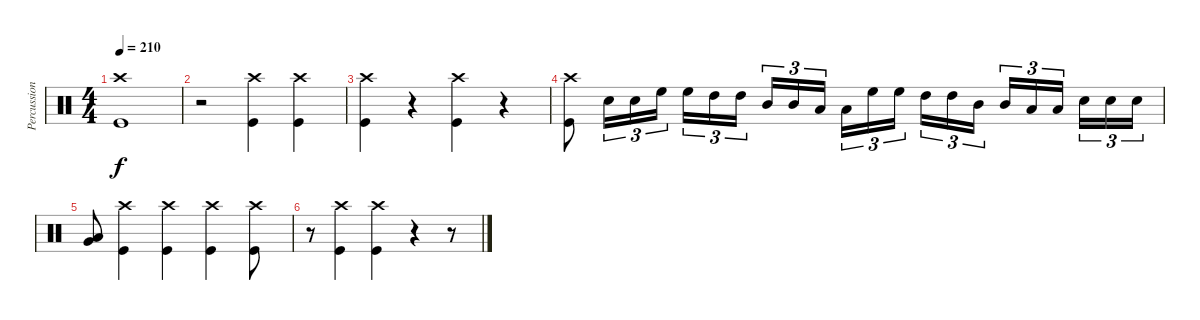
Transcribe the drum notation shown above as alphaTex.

\track ("Percussion" "Percussion") {instrument percussion}
\staff {score}
\articulation defaults
\ts (4 4)
\tempo 210
\clef neutral
\ks c
("Crash high (hit)" "Kick (hit)").1{dy f} |
r.2 ("Crash high (hit)" "Kick (hit)").4 ("Crash high (hit)" "Kick (hit)").4 |
("Crash high (hit)" "Kick (hit)").4 r.4 ("Crash high (hit)" "Kick (hit)").4 r.4 |
("Crash high (hit)" "Kick (hit)").8 "Snare (hit) 2".16{tu (3 2)} "Snare (hit) 2".16{tu (3 2)} "High Floor Tom (hit)".16{tu (3 2)} "High Floor Tom (hit)".16{tu (3 2)} "High Tom (hit)".16{tu (3 2)} "High Tom (hit)".16{tu (3 2) beam splitsecondary} "Mid Tom (hit)".16{tu (3 2)} "Mid Tom (hit)".16{tu (3 2)} "Low Tom (hit)".16{tu (3 2)} "Low Tom (hit)".16{tu (3 2)} "High Floor Tom (hit)".16{tu (3 2)} "High Floor Tom (hit)".16{tu (3 2) beam splitsecondary} "High Tom (hit)".16{tu (3 2)} "High Tom (hit)".16{tu (3 2)} "Mid Tom (hit)".16{tu (3 2)} "Mid Tom (hit)".16{tu (3 2)} "Low Tom (hit)".16{tu (3 2)} "Low Tom (hit)".16{tu (3 2) beam splitsecondary} "Snare (hit) 2".16{tu (3 2)} "Snare (hit) 2".16{tu (3 2)} "Snare (hit) 2".16{tu (3 2)} |
("Low Floor Tom (hit)" "Very Low Tom (hit)").8 ("Crash high (hit)" "Kick (hit)").4 ("Crash high (hit)" "Kick (hit)").4 ("Crash high (hit)" "Kick (hit)").4 ("Crash high (hit)" "Kick (hit)").8 |
r.8 ("Crash high (hit)" "Kick (hit)").4 ("Crash high (hit)" "Kick (hit)").4 r.4 r.8
